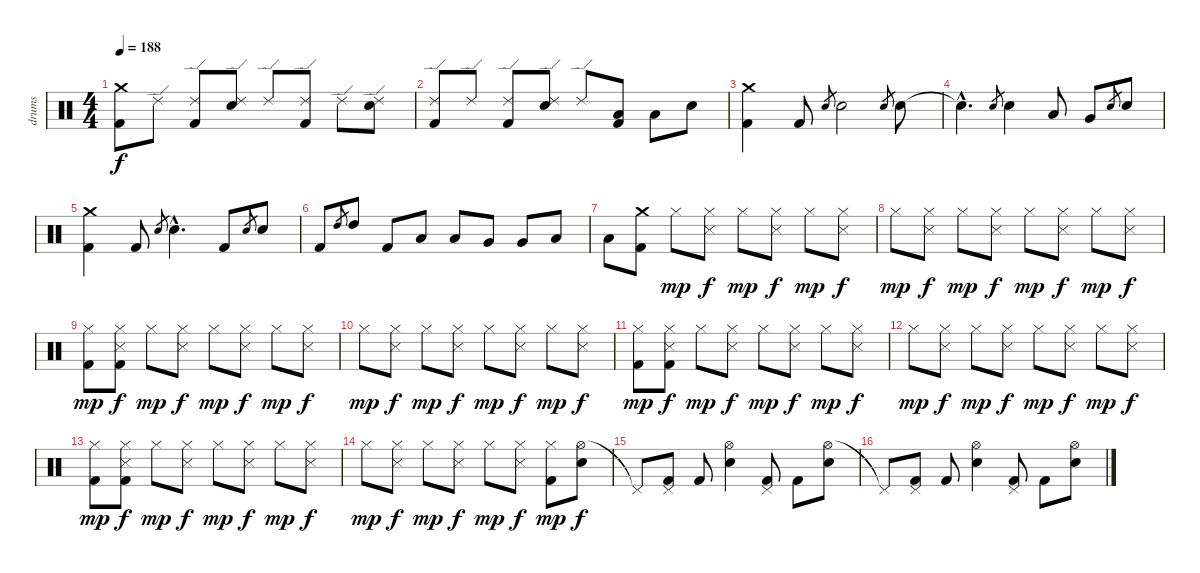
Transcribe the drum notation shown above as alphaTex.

\track ("drums" "drums") {instrument percussion}
\staff {score}
\articulation defaults
\ts (4 4)
\tempo 188
\clef neutral
\ks c
("Crash medium (hit)" "Kick (hit) 2").8{dy f} "Ride (edge) 2".8 ("Ride (edge) 2" "Kick (hit) 2").8 ("Ride (edge) 2" "Electric Snare (hit)").8 "Ride (edge) 2".8 ("Ride (edge) 2" "Kick (hit) 2").8 "Ride (edge) 2".8 ("Ride (edge) 2" "Electric Snare (hit)").8 |
("Ride (edge) 2" "Kick (hit) 2").8 "Ride (edge) 2".8 ("Ride (edge) 2" "Kick (hit) 2").8 ("Ride (edge) 2" "Electric Snare (hit)").8 "Ride (edge) 2".8 ("Low Floor Tom (hit)" "Kick (hit) 2").8 "Low Floor Tom (hit)".8 "Electric Snare (hit)".8 |
("Crash medium (hit)" "Kick (hit) 2").4 "Kick (hit) 2".8 "Electric Snare (hit)".8{gr} "Electric Snare (hit)".2 "Electric Snare (hit)".8{gr} "Electric Snare (hit)".8 |
"Snare (hit)"{hac t}.4{d} "Electric Snare (hit)".8{gr} "Electric Snare (hit)".4 "Low Tom (hit)".8 "Very Low Tom (hit)".8 "Electric Snare (hit)".8{gr} "Electric Snare (hit)".8 |
("Crash medium (hit)" "Kick (hit) 2").4 "Kick (hit) 2".8 "Electric Snare (hit)".8{gr} "Electric Snare (hit)"{hac}.4{d} "Kick (hit) 2".8 "Electric Snare (hit)".8{gr} "Electric Snare (hit)".8 |
"Kick (hit) 2".8 "High Tom (hit)".8{gr} "High Tom (hit)".8 "Kick (hit) 2".8 "Low Tom (hit)".8 "Low Tom (hit)".8 "Very Low Tom (hit)".8 "Very Low Tom (hit)".8 "Low Floor Tom (hit)".8 |
"Low Floor Tom (hit)".8 ("Crash medium (hit)" "Kick (hit) 2").8 "Hi-Hat (closed)".8{dy mp} ("Hi-Hat (closed)" "Snare (side stick) 3").8{dy f} "Hi-Hat (closed)".8{dy mp} ("Hi-Hat (closed)" "Snare (side stick) 3").8{dy f} "Hi-Hat (closed)".8{dy mp} ("Hi-Hat (closed)" "Snare (side stick) 3").8{dy f} |
"Hi-Hat (closed)".8{dy mp} ("Hi-Hat (closed)" "Snare (side stick) 3").8{dy f} "Hi-Hat (closed)".8{dy mp} ("Hi-Hat (closed)" "Snare (side stick) 3").8{dy f} "Hi-Hat (closed)".8{dy mp} ("Hi-Hat (closed)" "Snare (side stick) 3").8{dy f} "Hi-Hat (closed)".8{dy mp} ("Hi-Hat (closed)" "Snare (side stick) 3").8{dy f} |
("Hi-Hat (closed)" "Kick (hit) 2").8{dy mp} ("Hi-Hat (closed)" "Snare (side stick) 3" "Kick (hit) 2").8{dy f} "Hi-Hat (closed)".8{dy mp} ("Hi-Hat (closed)" "Snare (side stick) 3").8{dy f} "Hi-Hat (closed)".8{dy mp} ("Hi-Hat (closed)" "Snare (side stick) 3").8{dy f} "Hi-Hat (closed)".8{dy mp} ("Hi-Hat (closed)" "Snare (side stick) 3").8{dy f} |
"Hi-Hat (closed)".8{dy mp} ("Hi-Hat (closed)" "Snare (side stick) 3").8{dy f} "Hi-Hat (closed)".8{dy mp} ("Hi-Hat (closed)" "Snare (side stick) 3").8{dy f} "Hi-Hat (closed)".8{dy mp} ("Hi-Hat (closed)" "Snare (side stick) 3").8{dy f} "Hi-Hat (closed)".8{dy mp} ("Hi-Hat (closed)" "Snare (side stick) 3").8{dy f} |
("Hi-Hat (closed)" "Kick (hit) 2").8{dy mp} ("Hi-Hat (closed)" "Snare (side stick) 3" "Kick (hit) 2").8{dy f} "Hi-Hat (closed)".8{dy mp} ("Hi-Hat (closed)" "Snare (side stick) 3").8{dy f} "Hi-Hat (closed)".8{dy mp} ("Hi-Hat (closed)" "Snare (side stick) 3").8{dy f} "Hi-Hat (closed)".8{dy mp} ("Hi-Hat (closed)" "Snare (side stick) 3").8{dy f} |
"Hi-Hat (closed)".8{dy mp} ("Hi-Hat (closed)" "Snare (side stick) 3").8{dy f} "Hi-Hat (closed)".8{dy mp} ("Hi-Hat (closed)" "Snare (side stick) 3").8{dy f} "Hi-Hat (closed)".8{dy mp} ("Hi-Hat (closed)" "Snare (side stick) 3").8{dy f} "Hi-Hat (closed)".8{dy mp} ("Hi-Hat (closed)" "Snare (side stick) 3").8{dy f} |
("Hi-Hat (closed)" "Kick (hit) 2").8{dy mp} ("Hi-Hat (closed)" "Snare (side stick) 3" "Kick (hit) 2").8{dy f} "Hi-Hat (closed)".8{dy mp} ("Hi-Hat (closed)" "Snare (side stick) 3").8{dy f} "Hi-Hat (closed)".8{dy mp} ("Hi-Hat (closed)" "Snare (side stick) 3").8{dy f} "Hi-Hat (closed)".8{dy mp} ("Hi-Hat (closed)" "Snare (side stick) 3").8{dy f} |
"Hi-Hat (closed)".8{dy mp} ("Hi-Hat (closed)" "Snare (side stick) 3").8{dy f} "Hi-Hat (closed)".8{dy mp} ("Hi-Hat (closed)" "Snare (side stick) 3").8{dy f} "Hi-Hat (closed)".8{dy mp} ("Hi-Hat (closed)" "Snare (side stick) 3").8{dy f} ("Hi-Hat (closed)" "Kick (hit) 2").8{dy mp} ("Hi-Hat (open)" "Electric Snare (hit)").8{dy f} |
"Pedal Hi-Hat (hit)"{t}.8 ("Pedal Hi-Hat (hit)" "Kick (hit) 2").8 "Kick (hit) 2".8 ("Hi-Hat (open)" "Electric Snare (hit)").4 ("Pedal Hi-Hat (hit)" "Kick (hit) 2").8 "Kick (hit) 2".8 ("Hi-Hat (open)" "Electric Snare (hit)").8 |
"Pedal Hi-Hat (hit)"{t}.8 ("Pedal Hi-Hat (hit)" "Kick (hit) 2").8 "Kick (hit) 2".8 ("Hi-Hat (open)" "Electric Snare (hit)").4 ("Pedal Hi-Hat (hit)" "Kick (hit) 2").8 "Kick (hit) 2".8 ("Hi-Hat (open)" "Electric Snare (hit)").8
